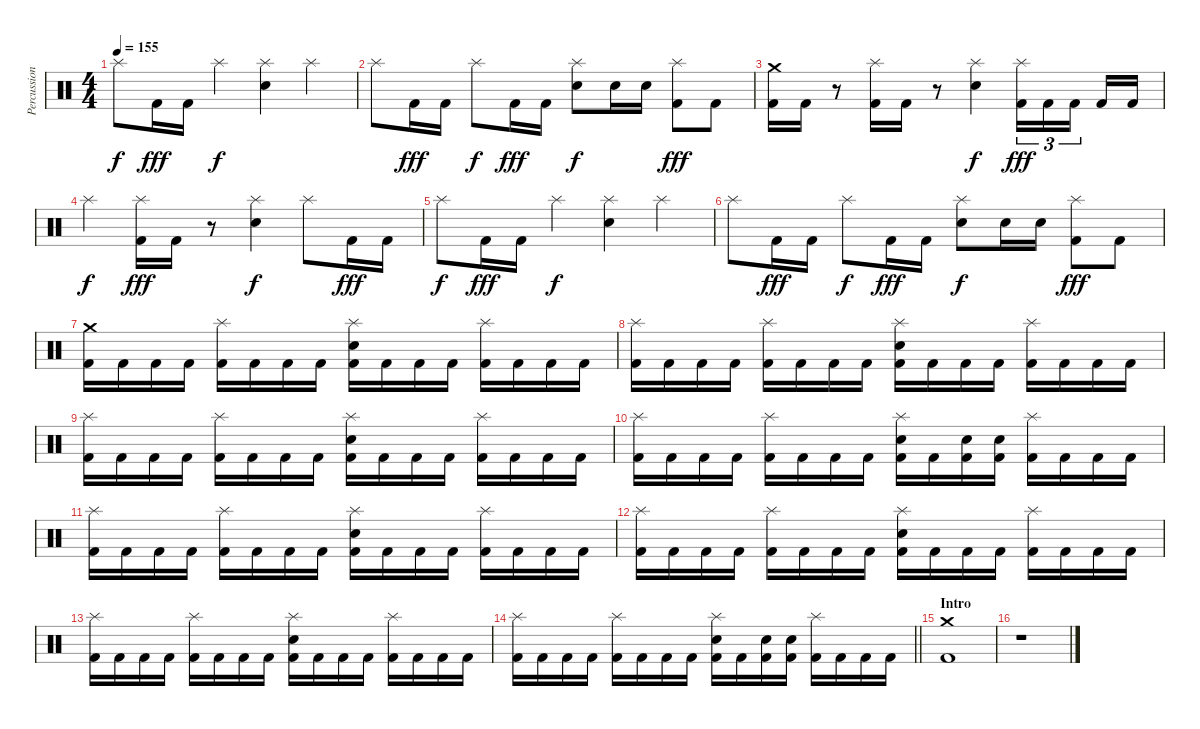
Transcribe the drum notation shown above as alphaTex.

\track ("Percussion" "Percussion") {instrument percussion}
\staff {score}
\articulation defaults
\ts (4 4)
\tempo 155
\clef neutral
\ks c "Splash (hit)".8{dy f} "Kick (hit) 2".16{dy fff} "Kick (hit) 2".16 "Splash (hit)".4{dy f}
("Splash (hit)" "Electric Snare (hit)").4 "Splash (hit)".4 |
"Splash (hit)".8 "Kick (hit) 2".16{dy fff} "Kick (hit) 2".16 "Splash (hit)".8{dy f} "Kick (hit) 2".16{dy fff} "Kick (hit) 2".16 ("Splash (hit)" "Electric Snare (hit)").8{dy f} "Electric Snare (hit)".16 "Electric Snare (hit)".16 ("Splash (hit)" "Kick (hit) 2").8{dy fff} "Kick (hit) 2".8 |
("Crash medium (hit)" "Kick (hit) 2").16 "Kick (hit) 2".16 r.8 ("Splash (hit)" "Kick (hit) 2").16 "Kick (hit) 2".16 r.8 ("Splash (hit)" "Electric Snare (hit)").4{dy f} ("Splash (hit)" "Kick (hit) 2").16{tu (3 2) dy fff} "Kick (hit) 2".16{tu (3 2)} "Kick (hit) 2".16{tu (3 2) beam splitsecondary} "Kick (hit) 2".16 "Kick (hit) 2".16 |
"Splash (hit)".4{dy f} ("Splash (hit)" "Kick (hit) 2").16{dy fff} "Kick (hit) 2".16 r.8 ("Splash (hit)" "Electric Snare (hit)").4{dy f} "Splash (hit)".8 "Kick (hit) 2".16{dy fff} "Kick (hit) 2".16 |
"Splash (hit)".8{dy f} "Kick (hit) 2".16{dy fff} "Kick (hit) 2".16 "Splash (hit)".4{dy f} ("Splash (hit)" "Electric Snare (hit)").4 "Splash (hit)".4 |
"Splash (hit)".8 "Kick (hit) 2".16{dy fff} "Kick (hit) 2".16 "Splash (hit)".8{dy f} "Kick (hit) 2".16{dy fff} "Kick (hit) 2".16 ("Splash (hit)" "Electric Snare (hit)").8{dy f} "Electric Snare (hit)".16 "Electric Snare (hit)".16 ("Splash (hit)" "Kick (hit) 2").8{dy fff} "Kick (hit) 2".8 |
("Crash medium (hit)" "Kick (hit) 2").16 "Kick (hit) 2".16 "Kick (hit) 2".16 "Kick (hit) 2".16 ("Splash (hit)" "Kick (hit) 2").16 "Kick (hit) 2".16 "Kick (hit) 2".16 "Kick (hit) 2".16 ("Splash (hit)" "Electric Snare (hit)" "Kick (hit) 2").16 "Kick (hit) 2".16 "Kick (hit) 2".16 "Kick (hit) 2".16 ("Splash (hit)" "Kick (hit) 2").16 "Kick (hit) 2".16 "Kick (hit) 2".16 "Kick (hit) 2".16 |
("Splash (hit)" "Kick (hit) 2").16 "Kick (hit) 2".16 "Kick (hit) 2".16 "Kick (hit) 2".16 ("Splash (hit)" "Kick (hit) 2").16 "Kick (hit) 2".16 "Kick (hit) 2".16 "Kick (hit) 2".16 ("Splash (hit)" "Electric Snare (hit)" "Kick (hit) 2").16 "Kick (hit) 2".16 "Kick (hit) 2".16 "Kick (hit) 2".16 ("Splash (hit)" "Kick (hit) 2").16 "Kick (hit) 2".16 "Kick (hit) 2".16 "Kick (hit) 2".16 |
("Splash (hit)" "Kick (hit) 2").16 "Kick (hit) 2".16 "Kick (hit) 2".16 "Kick (hit) 2".16 ("Splash (hit)" "Kick (hit) 2").16 "Kick (hit) 2".16 "Kick (hit) 2".16 "Kick (hit) 2".16 ("Splash (hit)" "Electric Snare (hit)" "Kick (hit) 2").16 "Kick (hit) 2".16 "Kick (hit) 2".16 "Kick (hit) 2".16 ("Splash (hit)" "Kick (hit) 2").16 "Kick (hit) 2".16 "Kick (hit) 2".16 "Kick (hit) 2".16 |
("Splash (hit)" "Kick (hit) 2").16 "Kick (hit) 2".16 "Kick (hit) 2".16 "Kick (hit) 2".16 ("Splash (hit)" "Kick (hit) 2").16 "Kick (hit) 2".16 "Kick (hit) 2".16 "Kick (hit) 2".16 ("Splash (hit)" "Electric Snare (hit)" "Kick (hit) 2").16 "Kick (hit) 2".16 ("Electric Snare (hit)" "Kick (hit) 2").16 ("Electric Snare (hit)" "Kick (hit) 2").16 ("Splash (hit)" "Kick (hit) 2").16 "Kick (hit) 2".16 "Kick (hit) 2".16 "Kick (hit) 2".16 |
("Splash (hit)" "Kick (hit) 2").16 "Kick (hit) 2".16 "Kick (hit) 2".16 "Kick (hit) 2".16 ("Splash (hit)" "Kick (hit) 2").16 "Kick (hit) 2".16 "Kick (hit) 2".16 "Kick (hit) 2".16 ("Splash (hit)" "Electric Snare (hit)" "Kick (hit) 2").16 "Kick (hit) 2".16 "Kick (hit) 2".16 "Kick (hit) 2".16 ("Splash (hit)" "Kick (hit) 2").16 "Kick (hit) 2".16 "Kick (hit) 2".16 "Kick (hit) 2".16 |
("Splash (hit)" "Kick (hit) 2").16 "Kick (hit) 2".16 "Kick (hit) 2".16 "Kick (hit) 2".16 ("Splash (hit)" "Kick (hit) 2").16 "Kick (hit) 2".16 "Kick (hit) 2".16 "Kick (hit) 2".16 ("Splash (hit)" "Electric Snare (hit)" "Kick (hit) 2").16 "Kick (hit) 2".16 "Kick (hit) 2".16 "Kick (hit) 2".16 ("Splash (hit)" "Kick (hit) 2").16 "Kick (hit) 2".16 "Kick (hit) 2".16 "Kick (hit) 2".16 |
("Splash (hit)" "Kick (hit) 2").16 "Kick (hit) 2".16 "Kick (hit) 2".16 "Kick (hit) 2".16 ("Splash (hit)" "Kick (hit) 2").16 "Kick (hit) 2".16 "Kick (hit) 2".16 "Kick (hit) 2".16 ("Splash (hit)" "Electric Snare (hit)" "Kick (hit) 2").16 "Kick (hit) 2".16 "Kick (hit) 2".16 "Kick (hit) 2".16 ("Splash (hit)" "Kick (hit) 2").16 "Kick (hit) 2".16 "Kick (hit) 2".16 "Kick (hit) 2".16 |
\barLineRight lightlight
("Splash (hit)" "Kick (hit) 2").16 "Kick (hit) 2".16 "Kick (hit) 2".16 "Kick (hit) 2".16 ("Splash (hit)" "Kick (hit) 2").16 "Kick (hit) 2".16 "Kick (hit) 2".16 "Kick (hit) 2".16 ("Splash (hit)" "Electric Snare (hit)" "Kick (hit) 2").16 "Kick (hit) 2".16 ("Electric Snare (hit)" "Kick (hit) 2").16 ("Electric Snare (hit)" "Kick (hit) 2").16 ("Splash (hit)" "Kick (hit) 2").16 "Kick (hit) 2".16 "Kick (hit) 2".16 "Kick (hit) 2".16 |
\section ("" "Intro")
("Crash medium (hit)" "Kick (hit) 2").1 |
r.1
